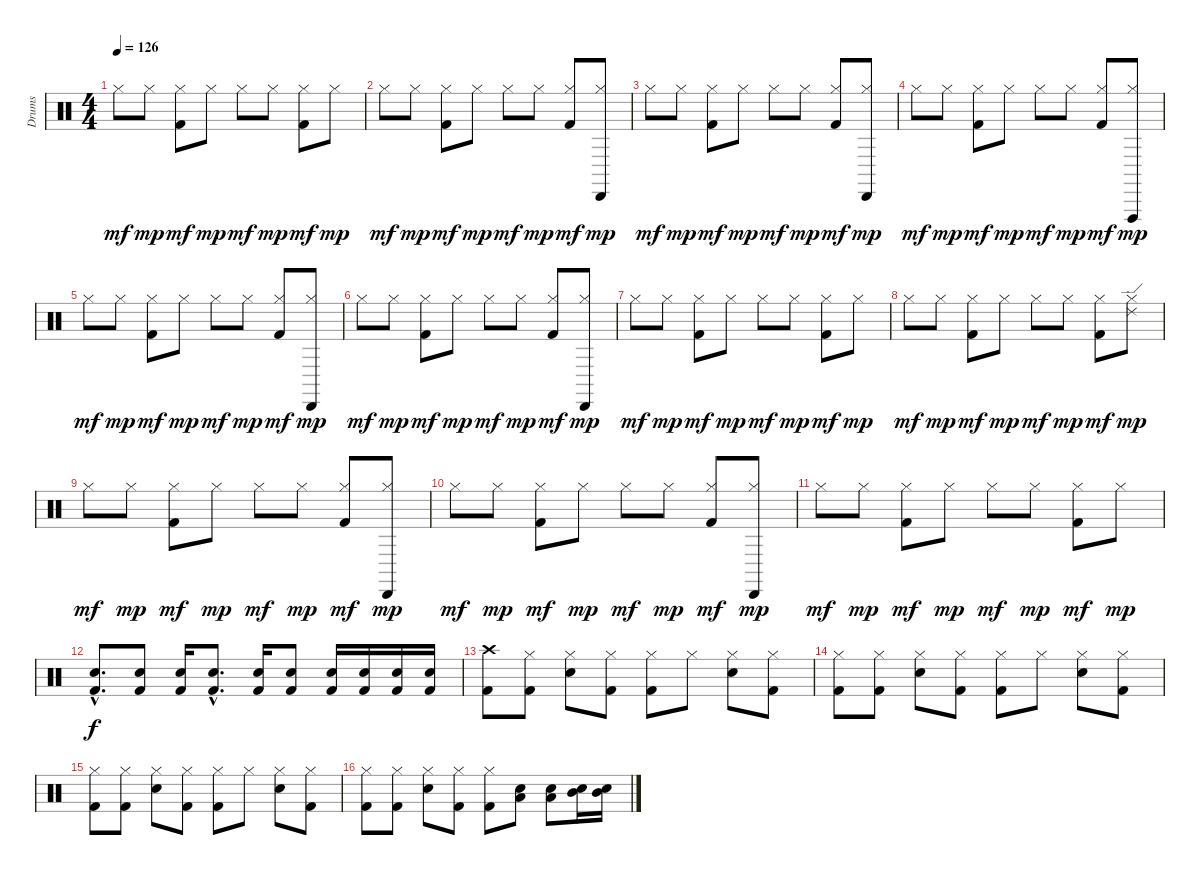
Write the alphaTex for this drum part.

\track ("Drums" "Drums") {instrument percussion}
\staff {score}
\articulation defaults
\ts (4 4)
\tempo 126
\clef neutral
\ks c "Hi-Hat (closed)".8{dy mf} "Hi-Hat (closed)".8{dy mp}
("Hi-Hat (closed)" "Kick (hit) 2").8{dy mf} "Hi-Hat (closed)".8{dy mp} "Hi-Hat (closed)".8{dy mf} "Hi-Hat (closed)".8{dy mp} ("Hi-Hat (closed)" "Kick (hit) 2").8{dy mf} "Hi-Hat (closed)".8{dy mp} |
"Hi-Hat (closed)".8{dy mf} "Hi-Hat (closed)".8{dy mp} ("Hi-Hat (closed)" "Kick (hit) 2").8{dy mf} "Hi-Hat (closed)".8{dy mp} "Hi-Hat (closed)".8{dy mf} "Hi-Hat (closed)".8{dy mp} ("Hi-Hat (closed)" "Kick (hit) 2").8{dy mf} ("Cabasa (hit)" "Hi-Hat (closed)").8{dy mp} |
"Hi-Hat (closed)".8{dy mf} "Hi-Hat (closed)".8{dy mp} ("Hi-Hat (closed)" "Kick (hit) 2").8{dy mf} "Hi-Hat (closed)".8{dy mp} "Hi-Hat (closed)".8{dy mf} "Hi-Hat (closed)".8{dy mp} ("Hi-Hat (closed)" "Kick (hit) 2").8{dy mf} ("Cabasa (hit)" "Hi-Hat (closed)").8{dy mp} |
"Hi-Hat (closed)".8{dy mf} "Hi-Hat (closed)".8{dy mp} ("Hi-Hat (closed)" "Kick (hit) 2").8{dy mf} "Hi-Hat (closed)".8{dy mp} "Hi-Hat (closed)".8{dy mf} "Hi-Hat (closed)".8{dy mp} ("Hi-Hat (closed)" "Kick (hit) 2").8{dy mf} ("Vibraslap (hit)" "Hi-Hat (closed)").8{dy mp} |
"Hi-Hat (closed)".8{dy mf} "Hi-Hat (closed)".8{dy mp} ("Hi-Hat (closed)" "Kick (hit) 2").8{dy mf} "Hi-Hat (closed)".8{dy mp} "Hi-Hat (closed)".8{dy mf} "Hi-Hat (closed)".8{dy mp} ("Hi-Hat (closed)" "Kick (hit) 2").8{dy mf} ("Cabasa (hit)" "Hi-Hat (closed)").8{dy mp} |
"Hi-Hat (closed)".8{dy mf} "Hi-Hat (closed)".8{dy mp} ("Hi-Hat (closed)" "Kick (hit) 2").8{dy mf} "Hi-Hat (closed)".8{dy mp} "Hi-Hat (closed)".8{dy mf} "Hi-Hat (closed)".8{dy mp} ("Hi-Hat (closed)" "Kick (hit) 2").8{dy mf} ("Cabasa (hit)" "Hi-Hat (closed)").8{dy mp} |
"Hi-Hat (closed)".8{dy mf} "Hi-Hat (closed)".8{dy mp} ("Hi-Hat (closed)" "Kick (hit) 2").8{dy mf} "Hi-Hat (closed)".8{dy mp} "Hi-Hat (closed)".8{dy mf} "Hi-Hat (closed)".8{dy mp} ("Hi-Hat (closed)" "Kick (hit) 2").8{dy mf} "Hi-Hat (closed)".8{dy mp} |
"Hi-Hat (closed)".8{dy mf} "Hi-Hat (closed)".8{dy mp} ("Hi-Hat (closed)" "Kick (hit) 2").8{dy mf} "Hi-Hat (closed)".8{dy mp} "Hi-Hat (closed)".8{dy mf} "Hi-Hat (closed)".8{dy mp} ("Hi-Hat (closed)" "Kick (hit) 2").8{dy mf} ("Ride (edge) 2" "Hi-Hat (closed)").8{dy mp} |
"Hi-Hat (closed)".8{dy mf} "Hi-Hat (closed)".8{dy mp} ("Hi-Hat (closed)" "Kick (hit) 2").8{dy mf} "Hi-Hat (closed)".8{dy mp} "Hi-Hat (closed)".8{dy mf} "Hi-Hat (closed)".8{dy mp} ("Hi-Hat (closed)" "Kick (hit) 2").8{dy mf} ("Cabasa (hit)" "Hi-Hat (closed)").8{dy mp} |
"Hi-Hat (closed)".8{dy mf} "Hi-Hat (closed)".8{dy mp} ("Hi-Hat (closed)" "Kick (hit) 2").8{dy mf} "Hi-Hat (closed)".8{dy mp} "Hi-Hat (closed)".8{dy mf} "Hi-Hat (closed)".8{dy mp} ("Hi-Hat (closed)" "Kick (hit) 2").8{dy mf} ("Cabasa (hit)" "Hi-Hat (closed)").8{dy mp} |
"Hi-Hat (closed)".8{dy mf} "Hi-Hat (closed)".8{dy mp} ("Hi-Hat (closed)" "Kick (hit) 2").8{dy mf} "Hi-Hat (closed)".8{dy mp} "Hi-Hat (closed)".8{dy mf} "Hi-Hat (closed)".8{dy mp} ("Hi-Hat (closed)" "Kick (hit) 2").8{dy mf} "Hi-Hat (closed)".8{dy mp} |
("Snare (hit) 2"{hac} "Kick (hit) 2"{hac}).8{d dy f} ("Snare (hit) 2" "Kick (hit) 2").8 ("Snare (hit) 2" "Kick (hit) 2").16 ("Snare (hit) 2"{hac} "Kick (hit) 2"{hac}).8{d} ("Snare (hit) 2" "Kick (hit) 2").16 ("Snare (hit) 2" "Kick (hit) 2").8 ("Snare (hit) 2" "Kick (hit) 2").16 ("Snare (hit) 2" "Kick (hit) 2").16 ("Snare (hit) 2" "Kick (hit) 2").16 ("Snare (hit) 2" "Kick (hit) 2").16 |
("Crash high (hit)" "Kick (hit) 2").8 ("Hi-Hat (closed)" "Kick (hit) 2").8 ("Hi-Hat (closed)" "Snare (hit) 2").8 ("Hi-Hat (closed)" "Kick (hit) 2").8 ("Hi-Hat (closed)" "Kick (hit) 2").8 "Hi-Hat (closed)".8 ("Hi-Hat (closed)" "Snare (hit) 2").8 ("Hi-Hat (closed)" "Kick (hit) 2").8 |
("Hi-Hat (closed)" "Kick (hit) 2").8 ("Hi-Hat (closed)" "Kick (hit) 2").8 ("Hi-Hat (closed)" "Snare (hit) 2").8 ("Hi-Hat (closed)" "Kick (hit) 2").8 ("Hi-Hat (closed)" "Kick (hit) 2").8 "Hi-Hat (closed)".8 ("Hi-Hat (closed)" "Snare (hit) 2").8 ("Hi-Hat (closed)" "Kick (hit) 2").8 |
("Hi-Hat (closed)" "Kick (hit) 2").8 ("Hi-Hat (closed)" "Kick (hit) 2").8 ("Hi-Hat (closed)" "Snare (hit) 2").8 ("Hi-Hat (closed)" "Kick (hit) 2").8 ("Hi-Hat (closed)" "Kick (hit) 2").8 "Hi-Hat (closed)".8 ("Hi-Hat (closed)" "Snare (hit) 2").8 ("Hi-Hat (closed)" "Kick (hit) 2").8 |
("Hi-Hat (closed)" "Kick (hit) 2").8 ("Hi-Hat (closed)" "Kick (hit) 2").8 ("Hi-Hat (closed)" "Snare (hit) 2").8 ("Hi-Hat (closed)" "Kick (hit) 2").8 ("Hi-Hat (closed)" "Kick (hit) 2").8 ("Low Tom (hit)" "Snare (hit) 2").8 ("Low Tom (hit)" "Snare (hit) 2").8 ("Mid Tom (hit)" "Snare (hit) 2").16 ("Mid Tom (hit)" "Snare (hit) 2").16
